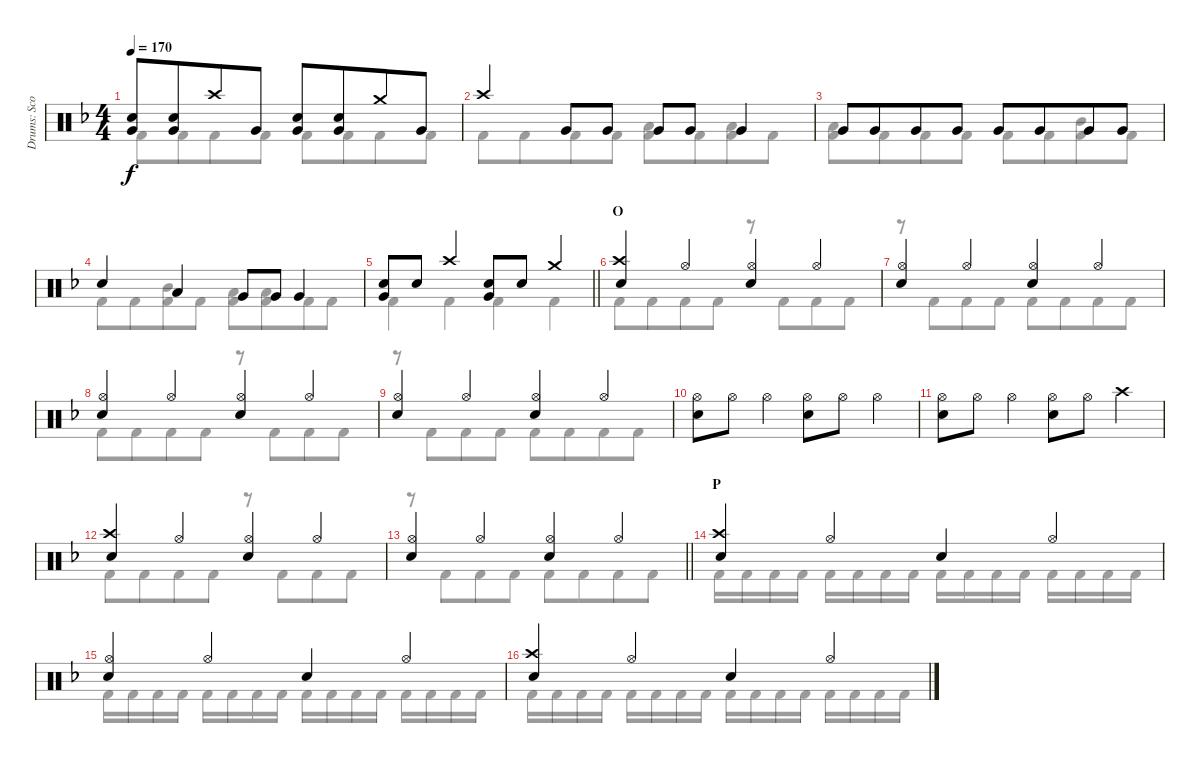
\track ("Drums: Scott" "Drums: Sco") {instrument percussion}
\staff {score}
\articulation defaults
\voice
\ts (4 4)
\tempo 170
\clef neutral
\ks f
("Snare (hit) 2" "Very Low Tom (hit)").8{dy f} ("Snare (hit) 2" "Very Low Tom (hit)").8{beam merge} "Crash high (hit)".8 "Very Low Tom (hit)".8 ("Snare (hit) 2" "Very Low Tom (hit)").8 ("Snare (hit) 2" "Very Low Tom (hit)").8{beam merge} "Crash medium (hit)".8 "Very Low Tom (hit)".8 |
"Crash high (hit)".4 "Very Low Tom (hit)".8 "Very Low Tom (hit)".8 "Very Low Tom (hit)".8 "Very Low Tom (hit)".8 "Very Low Tom (hit)".4 |
"Very Low Tom (hit)".8 "Very Low Tom (hit)".8{beam merge} "Very Low Tom (hit)".8 "Very Low Tom (hit)".8 "Very Low Tom (hit)".8 "Very Low Tom (hit)".8{beam merge} "Very Low Tom (hit)".8 "Very Low Tom (hit)".8 |
"Snare (hit) 2".4 "Low Tom (hit)".4 "Very Low Tom (hit)".8 "Very Low Tom (hit)".8 "Very Low Tom (hit)".4 |
\barLineRight lightlight
("Snare (hit) 2" "Very Low Tom (hit)").8 "Snare (hit) 2".8 "Crash high (hit)".4 ("Snare (hit) 2" "Very Low Tom (hit)").8 "Snare (hit) 2".8 "Crash medium (hit)".4 |
\section ("" "O")
("Crash high (hit)" "Snare (hit) 2").4 "Hi-Hat (open)".4 ("Hi-Hat (open)" "Snare (hit) 2").4 "Hi-Hat (open)".4 |
("Hi-Hat (open)" "Snare (hit) 2").4 "Hi-Hat (open)".4 ("Hi-Hat (open)" "Snare (hit) 2").4 "Hi-Hat (open)".4 |
("Hi-Hat (open)" "Snare (hit) 2").4 "Hi-Hat (open)".4 ("Hi-Hat (open)" "Snare (hit) 2").4 "Hi-Hat (open)".4 |
("Hi-Hat (open)" "Snare (hit) 2").4 "Hi-Hat (open)".4 ("Hi-Hat (open)" "Snare (hit) 2").4 "Hi-Hat (open)".4 |
("Hi-Hat (open)" "Snare (hit) 2").8 "Hi-Hat (open)".8 "Hi-Hat (open)".4 ("Hi-Hat (open)" "Snare (hit) 2").8 "Hi-Hat (open)".8 "Hi-Hat (open)".4 |
("Hi-Hat (open)" "Snare (hit) 2").8 "Hi-Hat (open)".8 "Hi-Hat (open)".4 ("Hi-Hat (open)" "Snare (hit) 2").8 "Hi-Hat (open)".8 "Crash high (hit)".4 |
("Crash high (hit)" "Snare (hit) 2").4 "Hi-Hat (open)".4 ("Hi-Hat (open)" "Snare (hit) 2").4 "Hi-Hat (open)".4 |
\barLineRight lightlight
("Hi-Hat (open)" "Snare (hit) 2").4 "Hi-Hat (open)".4 ("Hi-Hat (open)" "Snare (hit) 2").4 "Hi-Hat (open)".4 |
\section ("" "P")
("Crash high (hit)" "Snare (hit) 2").4 "Hi-Hat (open)".4 "Snare (hit) 2".4 "Hi-Hat (open)".4 |
("Hi-Hat (open)" "Snare (hit) 2").4 "Hi-Hat (open)".4 "Snare (hit) 2".4 "Hi-Hat (open)".4 |
("Crash high (hit)" "Snare (hit) 2").4 "Hi-Hat (open)".4 "Snare (hit) 2".4 "Hi-Hat (open)".4
\voice
\clef neutral
\ottava regular
\simile none
\ks f "Kick (hit) 2".8{dy f} "Kick (hit) 2".8{beam merge} "Kick (hit) 2".8 "Kick (hit) 2".8 "Kick (hit) 2".8 "Kick (hit) 2".8{beam merge} "Kick (hit) 2".8 "Kick (hit) 2".8
|
"Kick (hit) 2".8 "Kick (hit) 2".8{beam merge} "Kick (hit) 2".8 "Kick (hit) 2".8 ("Low Tom (hit)" "Kick (hit) 2").8 "Kick (hit) 2".8{beam merge} ("Low Tom (hit)" "Kick (hit) 2").8 "Kick (hit) 2".8 |
("Low Tom (hit)" "Kick (hit) 2").8 "Kick (hit) 2".8{beam merge} "Kick (hit) 2".8 "Kick (hit) 2".8 "Kick (hit) 2".8 "Kick (hit) 2".8{beam merge} ("Mid Tom (hit)" "Kick (hit) 2").8 "Kick (hit) 2".8 |
"Kick (hit) 2".8 "Kick (hit) 2".8{beam merge} ("Mid Tom (hit)" "Kick (hit) 2").8 "Kick (hit) 2".8 ("Low Tom (hit)" "Kick (hit) 2").8 ("Low Tom (hit)" "Kick (hit) 2").8{beam merge} "Kick (hit) 2".8 "Kick (hit) 2".8 |
\barLineRight lightlight "Kick (hit) 2".4 "Kick (hit) 2".4{beam merge} "Kick (hit) 2".4 "Kick (hit) 2".4
|
"Kick (hit) 2".8 "Kick (hit) 2".8{beam merge} "Kick (hit) 2".8 "Kick (hit) 2".8 r.8 "Kick (hit) 2".8{beam merge} "Kick (hit) 2".8 "Kick (hit) 2".8 |
r.8 "Kick (hit) 2".8{beam merge} "Kick (hit) 2".8 "Kick (hit) 2".8 "Kick (hit) 2".8 "Kick (hit) 2".8{beam merge} "Kick (hit) 2".8 "Kick (hit) 2".8 |
"Kick (hit) 2".8 "Kick (hit) 2".8{beam merge} "Kick (hit) 2".8 "Kick (hit) 2".8 r.8 "Kick (hit) 2".8{beam merge} "Kick (hit) 2".8 "Kick (hit) 2".8 |
r.8 "Kick (hit) 2".8{beam merge} "Kick (hit) 2".8 "Kick (hit) 2".8 "Kick (hit) 2".8 "Kick (hit) 2".8{beam merge} "Kick (hit) 2".8 "Kick (hit) 2".8 |
|
|
"Kick (hit) 2".8 "Kick (hit) 2".8{beam merge} "Kick (hit) 2".8 "Kick (hit) 2".8 r.8 "Kick (hit) 2".8{beam merge} "Kick (hit) 2".8 "Kick (hit) 2".8 |
\barLineRight lightlight
r.8 "Kick (hit) 2".8{beam merge} "Kick (hit) 2".8 "Kick (hit) 2".8 "Kick (hit) 2".8 "Kick (hit) 2".8{beam merge} "Kick (hit) 2".8 "Kick (hit) 2".8 |
"Kick (hit) 2".16 "Kick (hit) 2".16{beam merge} "Kick (hit) 2".16 "Kick (hit) 2".16 "Kick (hit) 2".16 "Kick (hit) 2".16{beam merge} "Kick (hit) 2".16 "Kick (hit) 2".16 "Kick (hit) 2".16 "Kick (hit) 2".16{beam merge} "Kick (hit) 2".16 "Kick (hit) 2".16 "Kick (hit) 2".16 "Kick (hit) 2".16{beam merge} "Kick (hit) 2".16 "Kick (hit) 2".16 |
"Kick (hit) 2".16 "Kick (hit) 2".16{beam merge} "Kick (hit) 2".16 "Kick (hit) 2".16 "Kick (hit) 2".16 "Kick (hit) 2".16{beam merge} "Kick (hit) 2".16 "Kick (hit) 2".16 "Kick (hit) 2".16 "Kick (hit) 2".16{beam merge} "Kick (hit) 2".16 "Kick (hit) 2".16 "Kick (hit) 2".16 "Kick (hit) 2".16{beam merge} "Kick (hit) 2".16 "Kick (hit) 2".16 |
"Kick (hit) 2".16 "Kick (hit) 2".16{beam merge} "Kick (hit) 2".16 "Kick (hit) 2".16 "Kick (hit) 2".16 "Kick (hit) 2".16{beam merge} "Kick (hit) 2".16 "Kick (hit) 2".16 "Kick (hit) 2".16 "Kick (hit) 2".16{beam merge} "Kick (hit) 2".16 "Kick (hit) 2".16 "Kick (hit) 2".16 "Kick (hit) 2".16{beam merge} "Kick (hit) 2".16 "Kick (hit) 2".16
